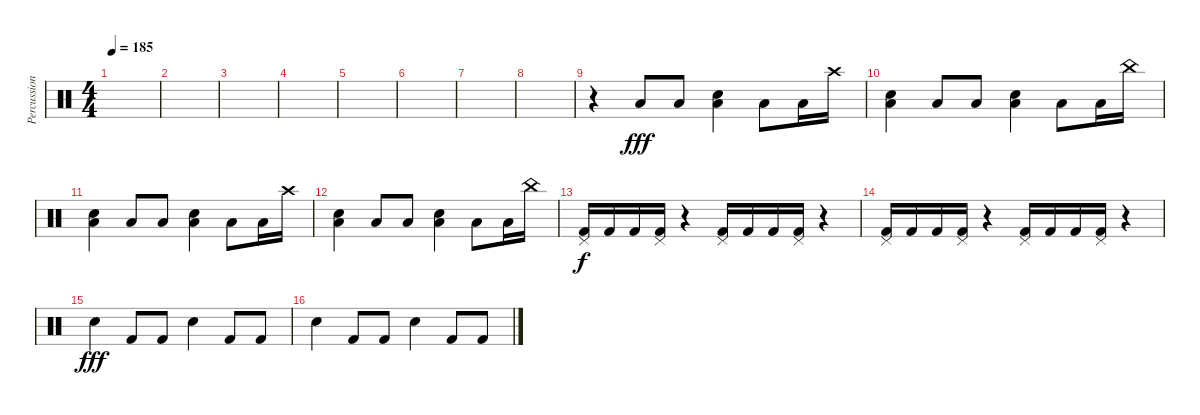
\track ("Percussions" "Percussion") {instrument percussion}
\staff {score}
\articulation defaults
\ts (4 4)
\tempo 185
\clef neutral
\ks c
|
|
|
|
|
|
|
|
r.4 "Low Tom (hit)".8{dy fff} "Low Tom (hit)".8 ("Electric Snare (hit)" "Low Tom (hit)").4 "Low Tom (hit)".8 "Low Tom (hit)".16 "Crash high (hit)".16 |
("Electric Snare (hit)" "Low Tom (hit)").4 "Low Tom (hit)".8 "Low Tom (hit)".8 ("Electric Snare (hit)" "Low Tom (hit)").4 "Low Tom (hit)".8 "Low Tom (hit)".16 "China (hit)".16 |
("Electric Snare (hit)" "Low Tom (hit)").4 "Low Tom (hit)".8 "Low Tom (hit)".8 ("Electric Snare (hit)" "Low Tom (hit)").4 "Low Tom (hit)".8 "Low Tom (hit)".16 "Crash high (hit)".16 |
("Electric Snare (hit)" "Low Tom (hit)").4 "Low Tom (hit)".8 "Low Tom (hit)".8 ("Electric Snare (hit)" "Low Tom (hit)").4 "Low Tom (hit)".8 "Low Tom (hit)".16 "China (hit)".16 |
("Pedal Hi-Hat (hit)" "Kick (hit) 2").16{dy f} "Kick (hit) 2".16 "Kick (hit) 2".16 ("Pedal Hi-Hat (hit)" "Kick (hit) 2").16 r.4 ("Pedal Hi-Hat (hit)" "Kick (hit) 2").16 "Kick (hit) 2".16 "Kick (hit) 2".16 ("Pedal Hi-Hat (hit)" "Kick (hit) 2").16 r.4 |
("Pedal Hi-Hat (hit)" "Kick (hit) 2").16 "Kick (hit) 2".16 "Kick (hit) 2".16 ("Pedal Hi-Hat (hit)" "Kick (hit) 2").16 r.4 ("Pedal Hi-Hat (hit)" "Kick (hit) 2").16 "Kick (hit) 2".16 "Kick (hit) 2".16 ("Pedal Hi-Hat (hit)" "Kick (hit) 2").16 r.4 |
"Electric Snare (hit)".4{dy fff} "Kick (hit) 2".8 "Kick (hit) 2".8 "Electric Snare (hit)".4 "Kick (hit) 2".8 "Kick (hit) 2".8 |
"Electric Snare (hit)".4 "Kick (hit) 2".8 "Kick (hit) 2".8 "Electric Snare (hit)".4 "Kick (hit) 2".8 "Kick (hit) 2".8
